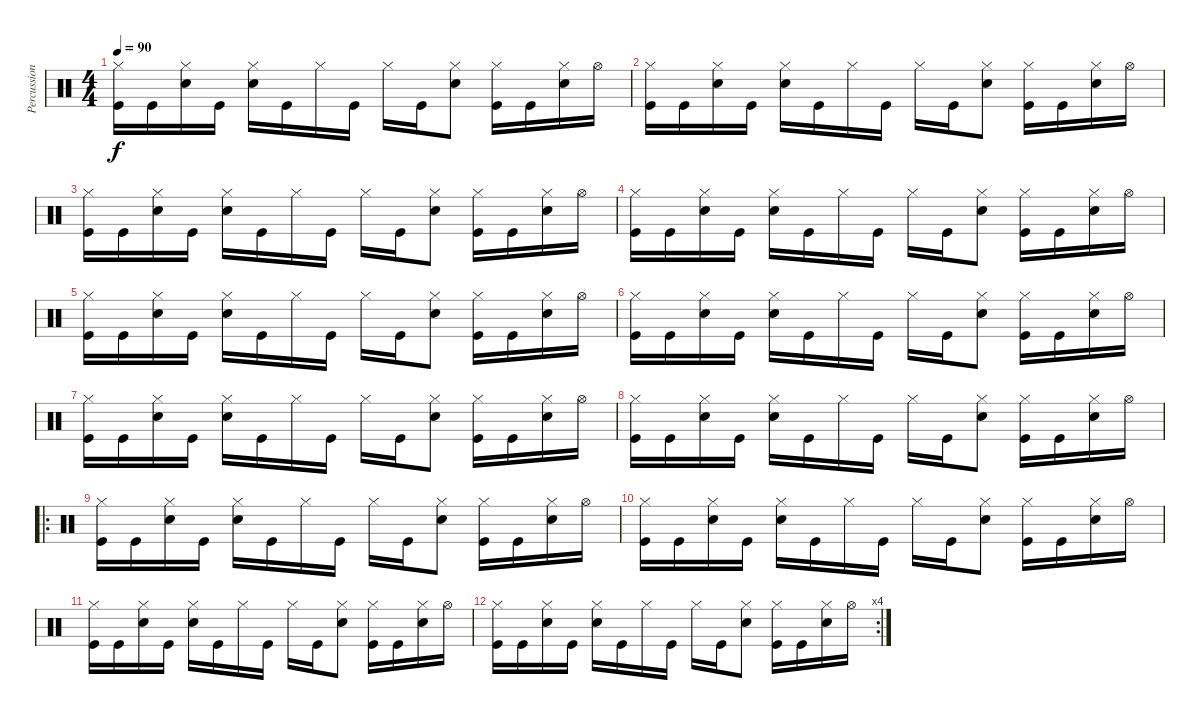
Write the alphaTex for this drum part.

\track ("Percussion" "Percussion") {instrument percussion}
\staff {score}
\articulation defaults
\ts (4 4)
\tempo 90
\clef neutral
\ks c
("Hi-Hat (closed)" "Kick (hit)").16{dy f} "Kick (hit)".16 ("Hi-Hat (closed)" "Electric Snare (hit)").16 "Kick (hit)".16 ("Hi-Hat (closed)" "Electric Snare (hit)").16 "Kick (hit)".16 "Hi-Hat (closed)".16 "Kick (hit)".16 "Hi-Hat (closed)".16 "Kick (hit)".16 ("Hi-Hat (closed)" "Electric Snare (hit)").8 ("Hi-Hat (closed)" "Kick (hit)").16 "Kick (hit)".16 ("Hi-Hat (closed)" "Electric Snare (hit)").16 "Hi-Hat (open)".16 |
("Hi-Hat (closed)" "Kick (hit)").16 "Kick (hit)".16 ("Hi-Hat (closed)" "Electric Snare (hit)").16 "Kick (hit)".16 ("Hi-Hat (closed)" "Electric Snare (hit)").16 "Kick (hit)".16 "Hi-Hat (closed)".16 "Kick (hit)".16 "Hi-Hat (closed)".16 "Kick (hit)".16 ("Hi-Hat (closed)" "Electric Snare (hit)").8 ("Hi-Hat (closed)" "Kick (hit)").16 "Kick (hit)".16 ("Hi-Hat (closed)" "Electric Snare (hit)").16 "Hi-Hat (open)".16 |
("Hi-Hat (closed)" "Kick (hit)").16 "Kick (hit)".16 ("Hi-Hat (closed)" "Electric Snare (hit)").16 "Kick (hit)".16 ("Hi-Hat (closed)" "Electric Snare (hit)").16 "Kick (hit)".16 "Hi-Hat (closed)".16 "Kick (hit)".16 "Hi-Hat (closed)".16 "Kick (hit)".16 ("Hi-Hat (closed)" "Electric Snare (hit)").8 ("Hi-Hat (closed)" "Kick (hit)").16 "Kick (hit)".16 ("Hi-Hat (closed)" "Electric Snare (hit)").16 "Hi-Hat (open)".16 |
("Hi-Hat (closed)" "Kick (hit)").16 "Kick (hit)".16 ("Hi-Hat (closed)" "Electric Snare (hit)").16 "Kick (hit)".16 ("Hi-Hat (closed)" "Electric Snare (hit)").16 "Kick (hit)".16 "Hi-Hat (closed)".16 "Kick (hit)".16 "Hi-Hat (closed)".16 "Kick (hit)".16 ("Hi-Hat (closed)" "Electric Snare (hit)").8 ("Hi-Hat (closed)" "Kick (hit)").16 "Kick (hit)".16 ("Hi-Hat (closed)" "Electric Snare (hit)").16 "Hi-Hat (open)".16 |
("Hi-Hat (closed)" "Kick (hit)").16 "Kick (hit)".16 ("Hi-Hat (closed)" "Electric Snare (hit)").16 "Kick (hit)".16 ("Hi-Hat (closed)" "Electric Snare (hit)").16 "Kick (hit)".16 "Hi-Hat (closed)".16 "Kick (hit)".16 "Hi-Hat (closed)".16 "Kick (hit)".16 ("Hi-Hat (closed)" "Electric Snare (hit)").8 ("Hi-Hat (closed)" "Kick (hit)").16 "Kick (hit)".16 ("Hi-Hat (closed)" "Electric Snare (hit)").16 "Hi-Hat (open)".16 |
("Hi-Hat (closed)" "Kick (hit)").16 "Kick (hit)".16 ("Hi-Hat (closed)" "Electric Snare (hit)").16 "Kick (hit)".16 ("Hi-Hat (closed)" "Electric Snare (hit)").16 "Kick (hit)".16 "Hi-Hat (closed)".16 "Kick (hit)".16 "Hi-Hat (closed)".16 "Kick (hit)".16 ("Hi-Hat (closed)" "Electric Snare (hit)").8 ("Hi-Hat (closed)" "Kick (hit)").16 "Kick (hit)".16 ("Hi-Hat (closed)" "Electric Snare (hit)").16 "Hi-Hat (open)".16 |
("Hi-Hat (closed)" "Kick (hit)").16 "Kick (hit)".16 ("Hi-Hat (closed)" "Electric Snare (hit)").16 "Kick (hit)".16 ("Hi-Hat (closed)" "Electric Snare (hit)").16 "Kick (hit)".16 "Hi-Hat (closed)".16 "Kick (hit)".16 "Hi-Hat (closed)".16 "Kick (hit)".16 ("Hi-Hat (closed)" "Electric Snare (hit)").8 ("Hi-Hat (closed)" "Kick (hit)").16 "Kick (hit)".16 ("Hi-Hat (closed)" "Electric Snare (hit)").16 "Hi-Hat (open)".16 |
("Hi-Hat (closed)" "Kick (hit)").16 "Kick (hit)".16 ("Hi-Hat (closed)" "Electric Snare (hit)").16 "Kick (hit)".16 ("Hi-Hat (closed)" "Electric Snare (hit)").16 "Kick (hit)".16 "Hi-Hat (closed)".16 "Kick (hit)".16 "Hi-Hat (closed)".16 "Kick (hit)".16 ("Hi-Hat (closed)" "Electric Snare (hit)").8 ("Hi-Hat (closed)" "Kick (hit)").16 "Kick (hit)".16 ("Hi-Hat (closed)" "Electric Snare (hit)").16 "Hi-Hat (open)".16 |
\ro
("Hi-Hat (closed)" "Kick (hit)").16 "Kick (hit)".16 ("Hi-Hat (closed)" "Electric Snare (hit)").16 "Kick (hit)".16 ("Hi-Hat (closed)" "Electric Snare (hit)").16 "Kick (hit)".16 "Hi-Hat (closed)".16 "Kick (hit)".16 "Hi-Hat (closed)".16 "Kick (hit)".16 ("Hi-Hat (closed)" "Electric Snare (hit)").8 ("Hi-Hat (closed)" "Kick (hit)").16 "Kick (hit)".16 ("Hi-Hat (closed)" "Electric Snare (hit)").16 "Hi-Hat (open)".16 |
("Hi-Hat (closed)" "Kick (hit)").16 "Kick (hit)".16 ("Hi-Hat (closed)" "Electric Snare (hit)").16 "Kick (hit)".16 ("Hi-Hat (closed)" "Electric Snare (hit)").16 "Kick (hit)".16 "Hi-Hat (closed)".16 "Kick (hit)".16 "Hi-Hat (closed)".16 "Kick (hit)".16 ("Hi-Hat (closed)" "Electric Snare (hit)").8 ("Hi-Hat (closed)" "Kick (hit)").16 "Kick (hit)".16 ("Hi-Hat (closed)" "Electric Snare (hit)").16 "Hi-Hat (open)".16 |
("Hi-Hat (closed)" "Kick (hit)").16 "Kick (hit)".16 ("Hi-Hat (closed)" "Electric Snare (hit)").16 "Kick (hit)".16 ("Hi-Hat (closed)" "Electric Snare (hit)").16 "Kick (hit)".16 "Hi-Hat (closed)".16 "Kick (hit)".16 "Hi-Hat (closed)".16 "Kick (hit)".16 ("Hi-Hat (closed)" "Electric Snare (hit)").8 ("Hi-Hat (closed)" "Kick (hit)").16 "Kick (hit)".16 ("Hi-Hat (closed)" "Electric Snare (hit)").16 "Hi-Hat (open)".16 |
\rc 4
("Hi-Hat (closed)" "Kick (hit)").16 "Kick (hit)".16 ("Hi-Hat (closed)" "Electric Snare (hit)").16 "Kick (hit)".16 ("Hi-Hat (closed)" "Electric Snare (hit)").16 "Kick (hit)".16 "Hi-Hat (closed)".16 "Kick (hit)".16 "Hi-Hat (closed)".16 "Kick (hit)".16 ("Hi-Hat (closed)" "Electric Snare (hit)").8 ("Hi-Hat (closed)" "Kick (hit)").16 "Kick (hit)".16 ("Hi-Hat (closed)" "Electric Snare (hit)").16 "Hi-Hat (open)".16
